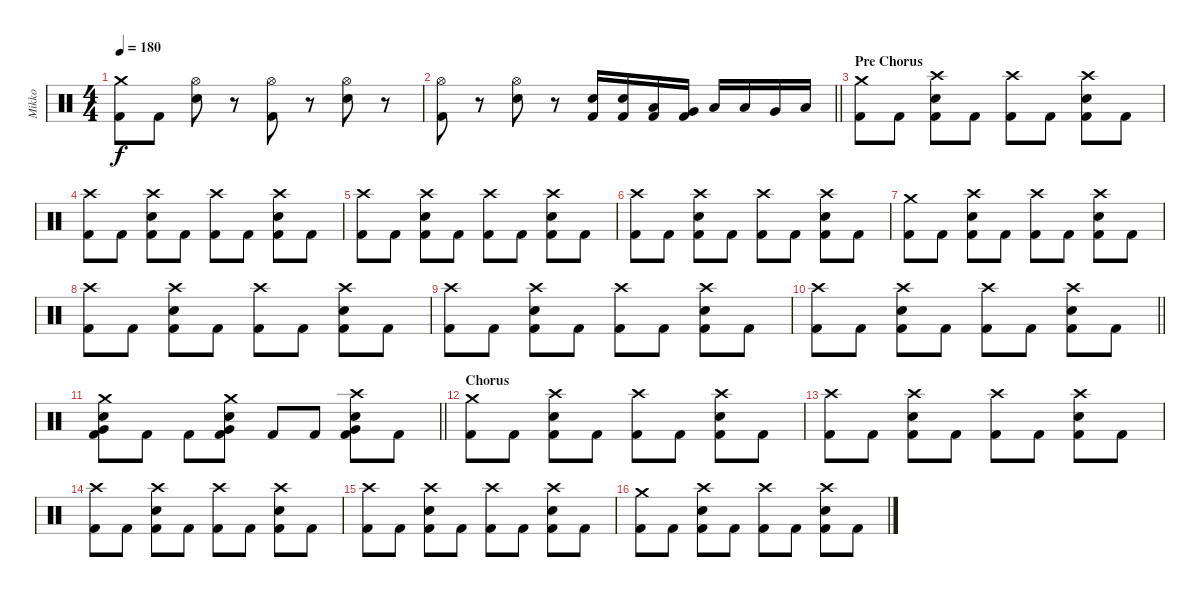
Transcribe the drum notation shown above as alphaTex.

\track ("Mikko" "Mikko") {instrument percussion}
\staff {score}
\articulation defaults
\ts (4 4)
\tempo 180
\clef neutral
\ks c
("Crash medium (hit)" "Kick (hit) 2").8{dy f} "Kick (hit) 2".8 ("Hi-Hat (open)" "Electric Snare (hit)").8 r.8 ("Hi-Hat (open)" "Kick (hit) 2").8 r.8 ("Hi-Hat (open)" "Electric Snare (hit)").8 r.8 |
\barLineRight lightlight
("Hi-Hat (open)" "Kick (hit) 2").8 r.8 ("Hi-Hat (open)" "Electric Snare (hit)").8 r.8 ("Electric Snare (hit)" "Kick (hit) 2").16 ("Electric Snare (hit)" "Kick (hit) 2").16 ("Low Tom (hit)" "Kick (hit) 2").16 ("Very Low Tom (hit)" "Kick (hit) 2").16 "Low Floor Tom (hit)".16 "Low Tom (hit)".16 "Very Low Tom (hit)".16 "Low Floor Tom (hit)".16 |
\section ("" "Pre Chorus")
("Crash medium (hit)" "Kick (hit) 2").8 "Kick (hit) 2".8 ("Crash high (hit)" "Electric Snare (hit)" "Kick (hit) 2").8 "Kick (hit) 2".8 ("Crash high (hit)" "Kick (hit) 2").8 "Kick (hit) 2".8 ("Crash high (hit)" "Electric Snare (hit)" "Kick (hit) 2").8 "Kick (hit) 2".8 |
("Crash high (hit)" "Kick (hit) 2").8 "Kick (hit) 2".8 ("Crash high (hit)" "Electric Snare (hit)" "Kick (hit) 2").8 "Kick (hit) 2".8 ("Crash high (hit)" "Kick (hit) 2").8 "Kick (hit) 2".8 ("Crash high (hit)" "Electric Snare (hit)" "Kick (hit) 2").8 "Kick (hit) 2".8 |
("Crash high (hit)" "Kick (hit) 2").8 "Kick (hit) 2".8 ("Crash high (hit)" "Electric Snare (hit)" "Kick (hit) 2").8 "Kick (hit) 2".8 ("Crash high (hit)" "Kick (hit) 2").8 "Kick (hit) 2".8 ("Crash high (hit)" "Electric Snare (hit)" "Kick (hit) 2").8 "Kick (hit) 2".8 |
("Crash high (hit)" "Kick (hit) 2").8 "Kick (hit) 2".8 ("Crash high (hit)" "Electric Snare (hit)" "Kick (hit) 2").8 "Kick (hit) 2".8 ("Crash high (hit)" "Kick (hit) 2").8 "Kick (hit) 2".8 ("Crash high (hit)" "Electric Snare (hit)" "Kick (hit) 2").8 "Kick (hit) 2".8 |
("Crash medium (hit)" "Kick (hit) 2").8 "Kick (hit) 2".8 ("Crash high (hit)" "Electric Snare (hit)" "Kick (hit) 2").8 "Kick (hit) 2".8 ("Crash high (hit)" "Kick (hit) 2").8 "Kick (hit) 2".8 ("Crash high (hit)" "Electric Snare (hit)" "Kick (hit) 2").8 "Kick (hit) 2".8 |
("Crash high (hit)" "Kick (hit) 2").8 "Kick (hit) 2".8 ("Crash high (hit)" "Electric Snare (hit)" "Kick (hit) 2").8 "Kick (hit) 2".8 ("Crash high (hit)" "Kick (hit) 2").8 "Kick (hit) 2".8 ("Crash high (hit)" "Electric Snare (hit)" "Kick (hit) 2").8 "Kick (hit) 2".8 |
("Crash high (hit)" "Kick (hit) 2").8 "Kick (hit) 2".8 ("Crash high (hit)" "Electric Snare (hit)" "Kick (hit) 2").8 "Kick (hit) 2".8 ("Crash high (hit)" "Kick (hit) 2").8 "Kick (hit) 2".8 ("Crash high (hit)" "Electric Snare (hit)" "Kick (hit) 2").8 "Kick (hit) 2".8 |
\barLineRight lightlight
("Crash high (hit)" "Kick (hit) 2").8 "Kick (hit) 2".8 ("Crash high (hit)" "Electric Snare (hit)" "Kick (hit) 2").8 "Kick (hit) 2".8 ("Crash high (hit)" "Kick (hit) 2").8 "Kick (hit) 2".8 ("Crash high (hit)" "Electric Snare (hit)" "Kick (hit) 2").8 "Kick (hit) 2".8 |
\barLineRight lightlight
("Crash medium (hit)" "Very Low Tom (hit)" "Electric Snare (hit)" "Kick (hit) 2").8 "Kick (hit) 2".8 "Kick (hit) 2".8 ("Crash medium (hit)" "Very Low Tom (hit)" "Electric Snare (hit)" "Kick (hit) 2").8 "Kick (hit) 2".8 "Kick (hit) 2".8 ("Crash high (hit)" "Very Low Tom (hit)" "Electric Snare (hit)" "Kick (hit) 2").8 "Kick (hit) 2".8 |
\section ("" "Chorus")
("Crash medium (hit)" "Kick (hit) 2").8 "Kick (hit) 2".8 ("Crash high (hit)" "Electric Snare (hit)" "Kick (hit) 2").8 "Kick (hit) 2".8 ("Crash high (hit)" "Kick (hit) 2").8 "Kick (hit) 2".8 ("Crash high (hit)" "Electric Snare (hit)" "Kick (hit) 2").8 "Kick (hit) 2".8 |
("Crash high (hit)" "Kick (hit) 2").8 "Kick (hit) 2".8 ("Crash high (hit)" "Electric Snare (hit)" "Kick (hit) 2").8 "Kick (hit) 2".8 ("Crash high (hit)" "Kick (hit) 2").8 "Kick (hit) 2".8 ("Crash high (hit)" "Electric Snare (hit)" "Kick (hit) 2").8 "Kick (hit) 2".8 |
("Crash high (hit)" "Kick (hit) 2").8 "Kick (hit) 2".8 ("Crash high (hit)" "Electric Snare (hit)" "Kick (hit) 2").8 "Kick (hit) 2".8 ("Crash high (hit)" "Kick (hit) 2").8 "Kick (hit) 2".8 ("Crash high (hit)" "Electric Snare (hit)" "Kick (hit) 2").8 "Kick (hit) 2".8 |
("Crash high (hit)" "Kick (hit) 2").8 "Kick (hit) 2".8 ("Crash high (hit)" "Electric Snare (hit)" "Kick (hit) 2").8 "Kick (hit) 2".8 ("Crash high (hit)" "Kick (hit) 2").8 "Kick (hit) 2".8 ("Crash high (hit)" "Electric Snare (hit)" "Kick (hit) 2").8 "Kick (hit) 2".8 |
("Crash medium (hit)" "Kick (hit) 2").8 "Kick (hit) 2".8 ("Crash high (hit)" "Electric Snare (hit)" "Kick (hit) 2").8 "Kick (hit) 2".8 ("Crash high (hit)" "Kick (hit) 2").8 "Kick (hit) 2".8 ("Crash high (hit)" "Electric Snare (hit)" "Kick (hit) 2").8 "Kick (hit) 2".8
